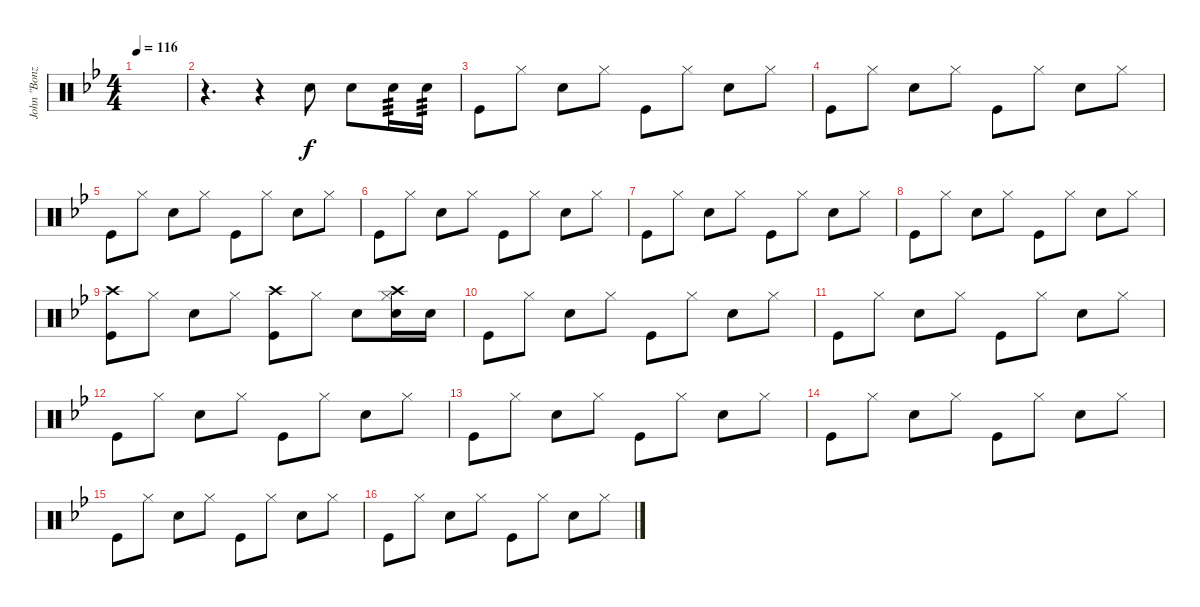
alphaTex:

\track ("John \"Bonzo\" Bonham" "John \"Bonz") {instrument percussion}
\staff {score}
\articulation defaults
\ts (4 4)
\tempo 116
\clef neutral
\ks bb
|
r.4{d} r.4 "Snare (hit) 2".8 "Snare (hit) 2".8 "Snare (hit) 2".16{tp 3} "Snare (hit) 2".16{tp 3} |
"Kick (hit)".8 "Hi-Hat (closed)".8 "Snare (hit) 2".8 "Hi-Hat (closed)".8 "Kick (hit)".8 "Hi-Hat (closed)".8 "Snare (hit) 2".8 "Hi-Hat (closed)".8 |
"Kick (hit)".8 "Hi-Hat (closed)".8 "Snare (hit) 2".8 "Hi-Hat (closed)".8 "Kick (hit)".8 "Hi-Hat (closed)".8 "Snare (hit) 2".8 "Hi-Hat (closed)".8 |
"Kick (hit)".8 "Hi-Hat (closed)".8 "Snare (hit) 2".8 "Hi-Hat (closed)".8 "Kick (hit)".8 "Hi-Hat (closed)".8 "Snare (hit) 2".8 "Hi-Hat (closed)".8 |
"Kick (hit)".8 "Hi-Hat (closed)".8 "Snare (hit) 2".8 "Hi-Hat (closed)".8 "Kick (hit)".8 "Hi-Hat (closed)".8 "Snare (hit) 2".8 "Hi-Hat (closed)".8 |
"Kick (hit)".8 "Hi-Hat (closed)".8 "Snare (hit) 2".8 "Hi-Hat (closed)".8 "Kick (hit)".8 "Hi-Hat (closed)".8 "Snare (hit) 2".8 "Hi-Hat (closed)".8 |
"Kick (hit)".8 "Hi-Hat (closed)".8 "Snare (hit) 2".8 "Hi-Hat (closed)".8 "Kick (hit)".8 "Hi-Hat (closed)".8 "Snare (hit) 2".8 "Hi-Hat (closed)".8 |
("Kick (hit)" "Crash high (hit)").8 "Hi-Hat (closed)".8 "Snare (hit) 2".8 "Hi-Hat (closed)".8 ("Kick (hit)" "Crash high (hit)").8 "Hi-Hat (closed)".8 "Snare (hit) 2".8 ("Snare (hit) 2" "Hi-Hat (closed)" "Crash high (hit)").16 "Snare (hit) 2".16 |
"Kick (hit)".8 "Hi-Hat (closed)".8 "Snare (hit) 2".8 "Hi-Hat (closed)".8 "Kick (hit)".8 "Hi-Hat (closed)".8 "Snare (hit) 2".8 "Hi-Hat (closed)".8 |
"Kick (hit)".8 "Hi-Hat (closed)".8 "Snare (hit) 2".8 "Hi-Hat (closed)".8 "Kick (hit)".8 "Hi-Hat (closed)".8 "Snare (hit) 2".8 "Hi-Hat (closed)".8 |
"Kick (hit)".8 "Hi-Hat (closed)".8 "Snare (hit) 2".8 "Hi-Hat (closed)".8 "Kick (hit)".8 "Hi-Hat (closed)".8 "Snare (hit) 2".8 "Hi-Hat (closed)".8 |
"Kick (hit)".8 "Hi-Hat (closed)".8 "Snare (hit) 2".8 "Hi-Hat (closed)".8 "Kick (hit)".8 "Hi-Hat (closed)".8 "Snare (hit) 2".8 "Hi-Hat (closed)".8 |
"Kick (hit)".8 "Hi-Hat (closed)".8 "Snare (hit) 2".8 "Hi-Hat (closed)".8 "Kick (hit)".8 "Hi-Hat (closed)".8 "Snare (hit) 2".8 "Hi-Hat (closed)".8 |
"Kick (hit)".8 "Hi-Hat (closed)".8 "Snare (hit) 2".8 "Hi-Hat (closed)".8 "Kick (hit)".8 "Hi-Hat (closed)".8 "Snare (hit) 2".8 "Hi-Hat (closed)".8 |
"Kick (hit)".8 "Hi-Hat (closed)".8 "Snare (hit) 2".8 "Hi-Hat (closed)".8 "Kick (hit)".8 "Hi-Hat (closed)".8 "Snare (hit) 2".8 "Hi-Hat (closed)".8
